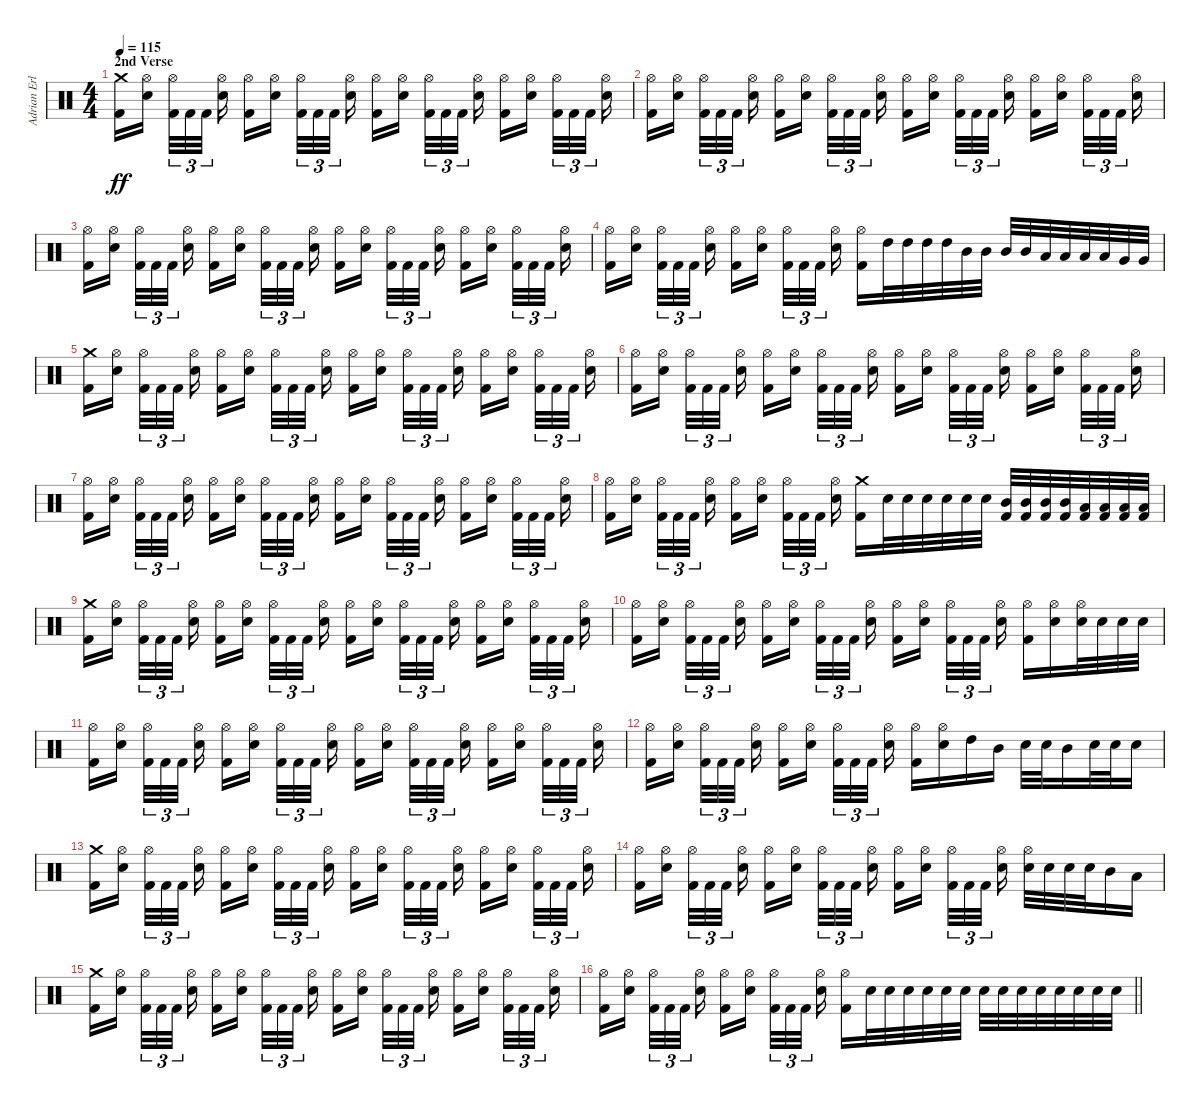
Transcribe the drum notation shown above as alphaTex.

\track ("Adrian Erlandsson" "Adrian Erl") {instrument percussion}
\staff {score}
\articulation defaults
\ts (4 4)
\section ("" "2nd Verse")
\tempo 115
\clef neutral
\ks c
("Kick (hit) 2" "Crash medium (hit)").16{dy ff} ("Electric Snare (hit)" "Hi-Hat (open)").16{beam splitsecondary} ("Kick (hit) 2" "Hi-Hat (open)").32{tu (3 2)} "Kick (hit) 2".32{tu (3 2)} "Kick (hit) 2".32{tu (3 2) beam splitsecondary} ("Electric Snare (hit)" "Hi-Hat (open)").16 ("Kick (hit) 2" "Hi-Hat (open)").16 ("Electric Snare (hit)" "Hi-Hat (open)").16{beam splitsecondary} ("Kick (hit) 2" "Hi-Hat (open)").32{tu (3 2)} "Kick (hit) 2".32{tu (3 2)} "Kick (hit) 2".32{tu (3 2) beam splitsecondary} ("Electric Snare (hit)" "Hi-Hat (open)").16 ("Kick (hit) 2" "Hi-Hat (open)").16 ("Electric Snare (hit)" "Hi-Hat (open)").16{beam splitsecondary} ("Kick (hit) 2" "Hi-Hat (open)").32{tu (3 2)} "Kick (hit) 2".32{tu (3 2)} "Kick (hit) 2".32{tu (3 2) beam splitsecondary} ("Electric Snare (hit)" "Hi-Hat (open)").16 ("Kick (hit) 2" "Hi-Hat (open)").16 ("Electric Snare (hit)" "Hi-Hat (open)").16{beam splitsecondary} ("Kick (hit) 2" "Hi-Hat (open)").32{tu (3 2)} "Kick (hit) 2".32{tu (3 2)} "Kick (hit) 2".32{tu (3 2) beam splitsecondary} ("Electric Snare (hit)" "Hi-Hat (open)").16 |
("Kick (hit) 2" "Hi-Hat (open)").16 ("Electric Snare (hit)" "Hi-Hat (open)").16{beam splitsecondary} ("Kick (hit) 2" "Hi-Hat (open)").32{tu (3 2)} "Kick (hit) 2".32{tu (3 2)} "Kick (hit) 2".32{tu (3 2) beam splitsecondary} ("Electric Snare (hit)" "Hi-Hat (open)").16 ("Kick (hit) 2" "Hi-Hat (open)").16 ("Electric Snare (hit)" "Hi-Hat (open)").16{beam splitsecondary} ("Kick (hit) 2" "Hi-Hat (open)").32{tu (3 2)} "Kick (hit) 2".32{tu (3 2)} "Kick (hit) 2".32{tu (3 2) beam splitsecondary} ("Electric Snare (hit)" "Hi-Hat (open)").16 ("Kick (hit) 2" "Hi-Hat (open)").16 ("Electric Snare (hit)" "Hi-Hat (open)").16{beam splitsecondary} ("Kick (hit) 2" "Hi-Hat (open)").32{tu (3 2)} "Kick (hit) 2".32{tu (3 2)} "Kick (hit) 2".32{tu (3 2) beam splitsecondary} ("Electric Snare (hit)" "Hi-Hat (open)").16 ("Kick (hit) 2" "Hi-Hat (open)").16 ("Electric Snare (hit)" "Hi-Hat (open)").16{beam splitsecondary} ("Kick (hit) 2" "Hi-Hat (open)").32{tu (3 2)} "Kick (hit) 2".32{tu (3 2)} "Kick (hit) 2".32{tu (3 2) beam splitsecondary} ("Electric Snare (hit)" "Hi-Hat (open)").16 |
("Kick (hit) 2" "Hi-Hat (open)").16 ("Electric Snare (hit)" "Hi-Hat (open)").16{beam splitsecondary} ("Kick (hit) 2" "Hi-Hat (open)").32{tu (3 2)} "Kick (hit) 2".32{tu (3 2)} "Kick (hit) 2".32{tu (3 2) beam splitsecondary} ("Electric Snare (hit)" "Hi-Hat (open)").16 ("Kick (hit) 2" "Hi-Hat (open)").16 ("Electric Snare (hit)" "Hi-Hat (open)").16{beam splitsecondary} ("Kick (hit) 2" "Hi-Hat (open)").32{tu (3 2)} "Kick (hit) 2".32{tu (3 2)} "Kick (hit) 2".32{tu (3 2) beam splitsecondary} ("Electric Snare (hit)" "Hi-Hat (open)").16 ("Kick (hit) 2" "Hi-Hat (open)").16 ("Electric Snare (hit)" "Hi-Hat (open)").16{beam splitsecondary} ("Kick (hit) 2" "Hi-Hat (open)").32{tu (3 2)} "Kick (hit) 2".32{tu (3 2)} "Kick (hit) 2".32{tu (3 2) beam splitsecondary} ("Electric Snare (hit)" "Hi-Hat (open)").16 ("Kick (hit) 2" "Hi-Hat (open)").16 ("Electric Snare (hit)" "Hi-Hat (open)").16{beam splitsecondary} ("Kick (hit) 2" "Hi-Hat (open)").32{tu (3 2)} "Kick (hit) 2".32{tu (3 2)} "Kick (hit) 2".32{tu (3 2) beam splitsecondary} ("Electric Snare (hit)" "Hi-Hat (open)").16 |
("Kick (hit) 2" "Hi-Hat (open)").16 ("Electric Snare (hit)" "Hi-Hat (open)").16{beam splitsecondary} ("Kick (hit) 2" "Hi-Hat (open)").32{tu (3 2)} "Kick (hit) 2".32{tu (3 2)} "Kick (hit) 2".32{tu (3 2) beam splitsecondary} ("Electric Snare (hit)" "Hi-Hat (open)").16 ("Kick (hit) 2" "Hi-Hat (open)").16 ("Electric Snare (hit)" "Hi-Hat (open)").16{beam splitsecondary} ("Kick (hit) 2" "Hi-Hat (open)").32{tu (3 2)} "Kick (hit) 2".32{tu (3 2)} "Kick (hit) 2".32{tu (3 2) beam splitsecondary} ("Electric Snare (hit)" "Hi-Hat (open)").16 ("Kick (hit) 2" "Hi-Hat (open)").16 "High Tom (hit)".32 "High Tom (hit)".32 "High Tom (hit)".32 "High Tom (hit)".32 "Mid Tom (hit)".32 "Mid Tom (hit)".32 "Mid Tom (hit)".32 "Mid Tom (hit)".32 "Low Tom (hit)".32 "Low Tom (hit)".32 "Low Tom (hit)".32 "Low Tom (hit)".32 "Very Low Tom (hit)".32 "Very Low Tom (hit)".32 |
("Kick (hit) 2" "Crash medium (hit)").16 ("Electric Snare (hit)" "Hi-Hat (open)").16{beam splitsecondary} ("Kick (hit) 2" "Hi-Hat (open)").32{tu (3 2)} "Kick (hit) 2".32{tu (3 2)} "Kick (hit) 2".32{tu (3 2) beam splitsecondary} ("Electric Snare (hit)" "Hi-Hat (open)").16 ("Kick (hit) 2" "Hi-Hat (open)").16 ("Electric Snare (hit)" "Hi-Hat (open)").16{beam splitsecondary} ("Kick (hit) 2" "Hi-Hat (open)").32{tu (3 2)} "Kick (hit) 2".32{tu (3 2)} "Kick (hit) 2".32{tu (3 2) beam splitsecondary} ("Electric Snare (hit)" "Hi-Hat (open)").16 ("Kick (hit) 2" "Hi-Hat (open)").16 ("Electric Snare (hit)" "Hi-Hat (open)").16{beam splitsecondary} ("Kick (hit) 2" "Hi-Hat (open)").32{tu (3 2)} "Kick (hit) 2".32{tu (3 2)} "Kick (hit) 2".32{tu (3 2) beam splitsecondary} ("Electric Snare (hit)" "Hi-Hat (open)").16 ("Kick (hit) 2" "Hi-Hat (open)").16 ("Electric Snare (hit)" "Hi-Hat (open)").16{beam splitsecondary} ("Kick (hit) 2" "Hi-Hat (open)").32{tu (3 2)} "Kick (hit) 2".32{tu (3 2)} "Kick (hit) 2".32{tu (3 2) beam splitsecondary} ("Electric Snare (hit)" "Hi-Hat (open)").16 |
("Kick (hit) 2" "Hi-Hat (open)").16 ("Electric Snare (hit)" "Hi-Hat (open)").16{beam splitsecondary} ("Kick (hit) 2" "Hi-Hat (open)").32{tu (3 2)} "Kick (hit) 2".32{tu (3 2)} "Kick (hit) 2".32{tu (3 2) beam splitsecondary} ("Electric Snare (hit)" "Hi-Hat (open)").16 ("Kick (hit) 2" "Hi-Hat (open)").16 ("Electric Snare (hit)" "Hi-Hat (open)").16{beam splitsecondary} ("Kick (hit) 2" "Hi-Hat (open)").32{tu (3 2)} "Kick (hit) 2".32{tu (3 2)} "Kick (hit) 2".32{tu (3 2) beam splitsecondary} ("Electric Snare (hit)" "Hi-Hat (open)").16 ("Kick (hit) 2" "Hi-Hat (open)").16 ("Electric Snare (hit)" "Hi-Hat (open)").16{beam splitsecondary} ("Kick (hit) 2" "Hi-Hat (open)").32{tu (3 2)} "Kick (hit) 2".32{tu (3 2)} "Kick (hit) 2".32{tu (3 2) beam splitsecondary} ("Electric Snare (hit)" "Hi-Hat (open)").16 ("Kick (hit) 2" "Hi-Hat (open)").16 ("Electric Snare (hit)" "Hi-Hat (open)").16{beam splitsecondary} ("Kick (hit) 2" "Hi-Hat (open)").32{tu (3 2)} "Kick (hit) 2".32{tu (3 2)} "Kick (hit) 2".32{tu (3 2) beam splitsecondary} ("Electric Snare (hit)" "Hi-Hat (open)").16 |
("Kick (hit) 2" "Hi-Hat (open)").16 ("Electric Snare (hit)" "Hi-Hat (open)").16{beam splitsecondary} ("Kick (hit) 2" "Hi-Hat (open)").32{tu (3 2)} "Kick (hit) 2".32{tu (3 2)} "Kick (hit) 2".32{tu (3 2) beam splitsecondary} ("Electric Snare (hit)" "Hi-Hat (open)").16 ("Kick (hit) 2" "Hi-Hat (open)").16 ("Electric Snare (hit)" "Hi-Hat (open)").16{beam splitsecondary} ("Kick (hit) 2" "Hi-Hat (open)").32{tu (3 2)} "Kick (hit) 2".32{tu (3 2)} "Kick (hit) 2".32{tu (3 2) beam splitsecondary} ("Electric Snare (hit)" "Hi-Hat (open)").16 ("Kick (hit) 2" "Hi-Hat (open)").16 ("Electric Snare (hit)" "Hi-Hat (open)").16{beam splitsecondary} ("Kick (hit) 2" "Hi-Hat (open)").32{tu (3 2)} "Kick (hit) 2".32{tu (3 2)} "Kick (hit) 2".32{tu (3 2) beam splitsecondary} ("Electric Snare (hit)" "Hi-Hat (open)").16 ("Kick (hit) 2" "Hi-Hat (open)").16 ("Electric Snare (hit)" "Hi-Hat (open)").16{beam splitsecondary} ("Kick (hit) 2" "Hi-Hat (open)").32{tu (3 2)} "Kick (hit) 2".32{tu (3 2)} "Kick (hit) 2".32{tu (3 2) beam splitsecondary} ("Electric Snare (hit)" "Hi-Hat (open)").16 |
("Kick (hit) 2" "Hi-Hat (open)").16 ("Electric Snare (hit)" "Hi-Hat (open)").16{beam splitsecondary} ("Kick (hit) 2" "Hi-Hat (open)").32{tu (3 2)} "Kick (hit) 2".32{tu (3 2)} "Kick (hit) 2".32{tu (3 2) beam splitsecondary} ("Electric Snare (hit)" "Hi-Hat (open)").16 ("Kick (hit) 2" "Hi-Hat (open)").16 ("Electric Snare (hit)" "Hi-Hat (open)").16{beam splitsecondary} ("Kick (hit) 2" "Hi-Hat (open)").32{tu (3 2)} "Kick (hit) 2".32{tu (3 2)} "Kick (hit) 2".32{tu (3 2) beam splitsecondary} ("Electric Snare (hit)" "Hi-Hat (open)").16 ("Kick (hit) 2" "Crash medium (hit)").16 "Electric Snare (hit)".32 "Electric Snare (hit)".32 "Electric Snare (hit)".32 "Electric Snare (hit)".32 "Electric Snare (hit)".32 "Electric Snare (hit)".32 ("Kick (hit) 2" "Mid Tom (hit)").32 ("Kick (hit) 2" "Mid Tom (hit)").32 ("Kick (hit) 2" "Mid Tom (hit)").32 ("Kick (hit) 2" "Mid Tom (hit)").32 ("Kick (hit) 2" "Low Tom (hit)").32 ("Kick (hit) 2" "Low Tom (hit)").32 ("Kick (hit) 2" "Low Tom (hit)").32 ("Kick (hit) 2" "Low Tom (hit)").32 |
("Kick (hit) 2" "Crash medium (hit)").16 ("Electric Snare (hit)" "Hi-Hat (open)").16{beam splitsecondary} ("Kick (hit) 2" "Hi-Hat (open)").32{tu (3 2)} "Kick (hit) 2".32{tu (3 2)} "Kick (hit) 2".32{tu (3 2) beam splitsecondary} ("Electric Snare (hit)" "Hi-Hat (open)").16 ("Kick (hit) 2" "Hi-Hat (open)").16 ("Electric Snare (hit)" "Hi-Hat (open)").16{beam splitsecondary} ("Kick (hit) 2" "Hi-Hat (open)").32{tu (3 2)} "Kick (hit) 2".32{tu (3 2)} "Kick (hit) 2".32{tu (3 2) beam splitsecondary} ("Electric Snare (hit)" "Hi-Hat (open)").16 ("Kick (hit) 2" "Hi-Hat (open)").16 ("Electric Snare (hit)" "Hi-Hat (open)").16{beam splitsecondary} ("Kick (hit) 2" "Hi-Hat (open)").32{tu (3 2)} "Kick (hit) 2".32{tu (3 2)} "Kick (hit) 2".32{tu (3 2) beam splitsecondary} ("Electric Snare (hit)" "Hi-Hat (open)").16 ("Kick (hit) 2" "Hi-Hat (open)").16 ("Electric Snare (hit)" "Hi-Hat (open)").16{beam splitsecondary} ("Kick (hit) 2" "Hi-Hat (open)").32{tu (3 2)} "Kick (hit) 2".32{tu (3 2)} "Kick (hit) 2".32{tu (3 2) beam splitsecondary} ("Electric Snare (hit)" "Hi-Hat (open)").16 |
("Kick (hit) 2" "Hi-Hat (open)").16 ("Electric Snare (hit)" "Hi-Hat (open)").16{beam splitsecondary} ("Kick (hit) 2" "Hi-Hat (open)").32{tu (3 2)} "Kick (hit) 2".32{tu (3 2)} "Kick (hit) 2".32{tu (3 2) beam splitsecondary} ("Electric Snare (hit)" "Hi-Hat (open)").16 ("Kick (hit) 2" "Hi-Hat (open)").16 ("Electric Snare (hit)" "Hi-Hat (open)").16{beam splitsecondary} ("Kick (hit) 2" "Hi-Hat (open)").32{tu (3 2)} "Kick (hit) 2".32{tu (3 2)} "Kick (hit) 2".32{tu (3 2) beam splitsecondary} ("Electric Snare (hit)" "Hi-Hat (open)").16 ("Kick (hit) 2" "Hi-Hat (open)").16 ("Electric Snare (hit)" "Hi-Hat (open)").16{beam splitsecondary} ("Kick (hit) 2" "Hi-Hat (open)").32{tu (3 2)} "Kick (hit) 2".32{tu (3 2)} "Kick (hit) 2".32{tu (3 2) beam splitsecondary} ("Electric Snare (hit)" "Hi-Hat (open)").16 ("Kick (hit) 2" "Hi-Hat (open)").16 ("Electric Snare (hit)" "Hi-Hat (open)").16 ("Electric Snare (hit)" "Hi-Hat (open)").32 "Electric Snare (hit)".32 "Electric Snare (hit)".32 "Electric Snare (hit)".32 |
("Kick (hit) 2" "Hi-Hat (open)").16 ("Electric Snare (hit)" "Hi-Hat (open)").16{beam splitsecondary} ("Kick (hit) 2" "Hi-Hat (open)").32{tu (3 2)} "Kick (hit) 2".32{tu (3 2)} "Kick (hit) 2".32{tu (3 2) beam splitsecondary} ("Electric Snare (hit)" "Hi-Hat (open)").16 ("Kick (hit) 2" "Hi-Hat (open)").16 ("Electric Snare (hit)" "Hi-Hat (open)").16{beam splitsecondary} ("Kick (hit) 2" "Hi-Hat (open)").32{tu (3 2)} "Kick (hit) 2".32{tu (3 2)} "Kick (hit) 2".32{tu (3 2) beam splitsecondary} ("Electric Snare (hit)" "Hi-Hat (open)").16 ("Kick (hit) 2" "Hi-Hat (open)").16 ("Electric Snare (hit)" "Hi-Hat (open)").16{beam splitsecondary} ("Kick (hit) 2" "Hi-Hat (open)").32{tu (3 2)} "Kick (hit) 2".32{tu (3 2)} "Kick (hit) 2".32{tu (3 2) beam splitsecondary} ("Electric Snare (hit)" "Hi-Hat (open)").16 ("Kick (hit) 2" "Hi-Hat (open)").16 ("Electric Snare (hit)" "Hi-Hat (open)").16{beam splitsecondary} ("Kick (hit) 2" "Hi-Hat (open)").32{tu (3 2)} "Kick (hit) 2".32{tu (3 2)} "Kick (hit) 2".32{tu (3 2) beam splitsecondary} ("Electric Snare (hit)" "Hi-Hat (open)").16 |
("Kick (hit) 2" "Hi-Hat (open)").16 ("Electric Snare (hit)" "Hi-Hat (open)").16{beam splitsecondary} ("Kick (hit) 2" "Hi-Hat (open)").32{tu (3 2)} "Kick (hit) 2".32{tu (3 2)} "Kick (hit) 2".32{tu (3 2) beam splitsecondary} ("Electric Snare (hit)" "Hi-Hat (open)").16 ("Kick (hit) 2" "Hi-Hat (open)").16 ("Electric Snare (hit)" "Hi-Hat (open)").16{beam splitsecondary} ("Kick (hit) 2" "Hi-Hat (open)").32{tu (3 2)} "Kick (hit) 2".32{tu (3 2)} "Kick (hit) 2".32{tu (3 2) beam splitsecondary} ("Electric Snare (hit)" "Hi-Hat (open)").16 ("Kick (hit) 2" "Hi-Hat (open)").16 ("Electric Snare (hit)" "Hi-Hat (open)").16 "High Tom (hit)".16 "Mid Tom (hit)".16 "Electric Snare (hit)".32 "Electric Snare (hit)".32 "Mid Tom (hit)".16 "Electric Snare (hit)".32 "Electric Snare (hit)".32 "Electric Snare (hit)".16 |
("Kick (hit) 2" "Crash medium (hit)").16 ("Electric Snare (hit)" "Hi-Hat (open)").16{beam splitsecondary} ("Kick (hit) 2" "Hi-Hat (open)").32{tu (3 2)} "Kick (hit) 2".32{tu (3 2)} "Kick (hit) 2".32{tu (3 2) beam splitsecondary} ("Electric Snare (hit)" "Hi-Hat (open)").16 ("Kick (hit) 2" "Hi-Hat (open)").16 ("Electric Snare (hit)" "Hi-Hat (open)").16{beam splitsecondary} ("Kick (hit) 2" "Hi-Hat (open)").32{tu (3 2)} "Kick (hit) 2".32{tu (3 2)} "Kick (hit) 2".32{tu (3 2) beam splitsecondary} ("Electric Snare (hit)" "Hi-Hat (open)").16 ("Kick (hit) 2" "Hi-Hat (open)").16 ("Electric Snare (hit)" "Hi-Hat (open)").16{beam splitsecondary} ("Kick (hit) 2" "Hi-Hat (open)").32{tu (3 2)} "Kick (hit) 2".32{tu (3 2)} "Kick (hit) 2".32{tu (3 2) beam splitsecondary} ("Electric Snare (hit)" "Hi-Hat (open)").16 ("Kick (hit) 2" "Hi-Hat (open)").16 ("Electric Snare (hit)" "Hi-Hat (open)").16{beam splitsecondary} ("Kick (hit) 2" "Hi-Hat (open)").32{tu (3 2)} "Kick (hit) 2".32{tu (3 2)} "Kick (hit) 2".32{tu (3 2) beam splitsecondary} ("Electric Snare (hit)" "Hi-Hat (open)").16 |
("Kick (hit) 2" "Hi-Hat (open)").16 ("Electric Snare (hit)" "Hi-Hat (open)").16{beam splitsecondary} ("Kick (hit) 2" "Hi-Hat (open)").32{tu (3 2)} "Kick (hit) 2".32{tu (3 2)} "Kick (hit) 2".32{tu (3 2) beam splitsecondary} ("Electric Snare (hit)" "Hi-Hat (open)").16 ("Kick (hit) 2" "Hi-Hat (open)").16 ("Electric Snare (hit)" "Hi-Hat (open)").16{beam splitsecondary} ("Kick (hit) 2" "Hi-Hat (open)").32{tu (3 2)} "Kick (hit) 2".32{tu (3 2)} "Kick (hit) 2".32{tu (3 2) beam splitsecondary} ("Electric Snare (hit)" "Hi-Hat (open)").16 ("Kick (hit) 2" "Hi-Hat (open)").16 ("Electric Snare (hit)" "Hi-Hat (open)").16{beam splitsecondary} ("Kick (hit) 2" "Hi-Hat (open)").32{tu (3 2)} "Kick (hit) 2".32{tu (3 2)} "Kick (hit) 2".32{tu (3 2) beam splitsecondary} ("Electric Snare (hit)" "Hi-Hat (open)").16 ("Electric Snare (hit)" "Hi-Hat (open)").32 "Electric Snare (hit)".32 "Electric Snare (hit)".32 "Electric Snare (hit)".32 "Mid Tom (hit)".16 "Low Tom (hit)".16 |
("Kick (hit) 2" "Crash medium (hit)").16 ("Electric Snare (hit)" "Hi-Hat (open)").16{beam splitsecondary} ("Kick (hit) 2" "Hi-Hat (open)").32{tu (3 2)} "Kick (hit) 2".32{tu (3 2)} "Kick (hit) 2".32{tu (3 2) beam splitsecondary} ("Electric Snare (hit)" "Hi-Hat (open)").16 ("Kick (hit) 2" "Hi-Hat (open)").16 ("Electric Snare (hit)" "Hi-Hat (open)").16{beam splitsecondary} ("Kick (hit) 2" "Hi-Hat (open)").32{tu (3 2)} "Kick (hit) 2".32{tu (3 2)} "Kick (hit) 2".32{tu (3 2) beam splitsecondary} ("Electric Snare (hit)" "Hi-Hat (open)").16 ("Kick (hit) 2" "Hi-Hat (open)").16 ("Electric Snare (hit)" "Hi-Hat (open)").16{beam splitsecondary} ("Kick (hit) 2" "Hi-Hat (open)").32{tu (3 2)} "Kick (hit) 2".32{tu (3 2)} "Kick (hit) 2".32{tu (3 2) beam splitsecondary} ("Electric Snare (hit)" "Hi-Hat (open)").16 ("Kick (hit) 2" "Hi-Hat (open)").16 ("Electric Snare (hit)" "Hi-Hat (open)").16{beam splitsecondary} ("Kick (hit) 2" "Hi-Hat (open)").32{tu (3 2)} "Kick (hit) 2".32{tu (3 2)} "Kick (hit) 2".32{tu (3 2) beam splitsecondary} ("Electric Snare (hit)" "Hi-Hat (open)").16 |
\barLineRight lightlight
("Kick (hit) 2" "Hi-Hat (open)").16 ("Electric Snare (hit)" "Hi-Hat (open)").16{beam splitsecondary} ("Kick (hit) 2" "Hi-Hat (open)").32{tu (3 2)} "Kick (hit) 2".32{tu (3 2)} "Kick (hit) 2".32{tu (3 2) beam splitsecondary} ("Electric Snare (hit)" "Hi-Hat (open)").16 ("Kick (hit) 2" "Hi-Hat (open)").16 ("Electric Snare (hit)" "Hi-Hat (open)").16{beam splitsecondary} ("Kick (hit) 2" "Hi-Hat (open)").32{tu (3 2)} "Kick (hit) 2".32{tu (3 2)} "Kick (hit) 2".32{tu (3 2) beam splitsecondary} ("Electric Snare (hit)" "Hi-Hat (open)").16 ("Kick (hit) 2" "Hi-Hat (open)").16 "Electric Snare (hit)".32 "Electric Snare (hit)".32 "Electric Snare (hit)".32 "Electric Snare (hit)".32 "Electric Snare (hit)".32 "Electric Snare (hit)".32 "Electric Snare (hit)".32 "Electric Snare (hit)".32 "Electric Snare (hit)".32 "Electric Snare (hit)".32 "Electric Snare (hit)".32 "Electric Snare (hit)".32 "Electric Snare (hit)".32 "Electric Snare (hit)".32
